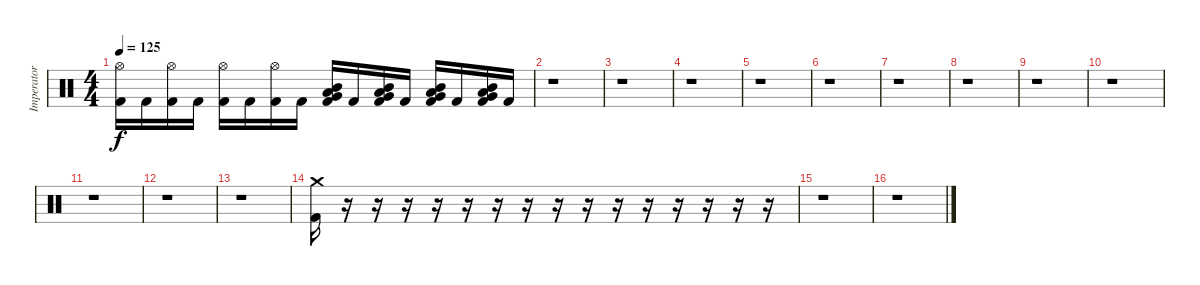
\track ("Imperator" "Imperator") {instrument percussion}
\staff {score}
\articulation defaults
\ts (4 4)
\tempo 125
\clef neutral
\ks c
("Hi-Hat (open)" "Kick (hit) 2").16{dy f} "Kick (hit) 2".16 ("Hi-Hat (open)" "Kick (hit) 2").16 "Kick (hit) 2".16 ("Hi-Hat (open)" "Kick (hit) 2").16 "Kick (hit) 2".16 ("Hi-Hat (open)" "Kick (hit) 2").16 "Kick (hit) 2".16 ("Low Tom (hit)" "Mid Tom (hit)" "Very Low Tom (hit)" "Kick (hit) 2").16 "Kick (hit) 2".16 ("Low Tom (hit)" "Mid Tom (hit)" "Very Low Tom (hit)" "Kick (hit) 2").16 "Kick (hit) 2".16 ("Low Tom (hit)" "Mid Tom (hit)" "Very Low Tom (hit)" "Kick (hit) 2").16 "Kick (hit) 2".16 ("Low Tom (hit)" "Mid Tom (hit)" "Very Low Tom (hit)" "Kick (hit) 2").16 "Kick (hit) 2".16 |
r.1 |
r.1 |
r.1 |
r.1 |
r.1 |
r.1 |
r.1 |
r.1 |
r.1 |
r.1 |
r.1 |
r.1 |
("Crash medium (hit)" "Kick (hit) 2").16 r.16 r.16 r.16 r.16 r.16 r.16 r.16 r.16 r.16 r.16 r.16 r.16 r.16 r.16 r.16 |
r.1 |
r.1
